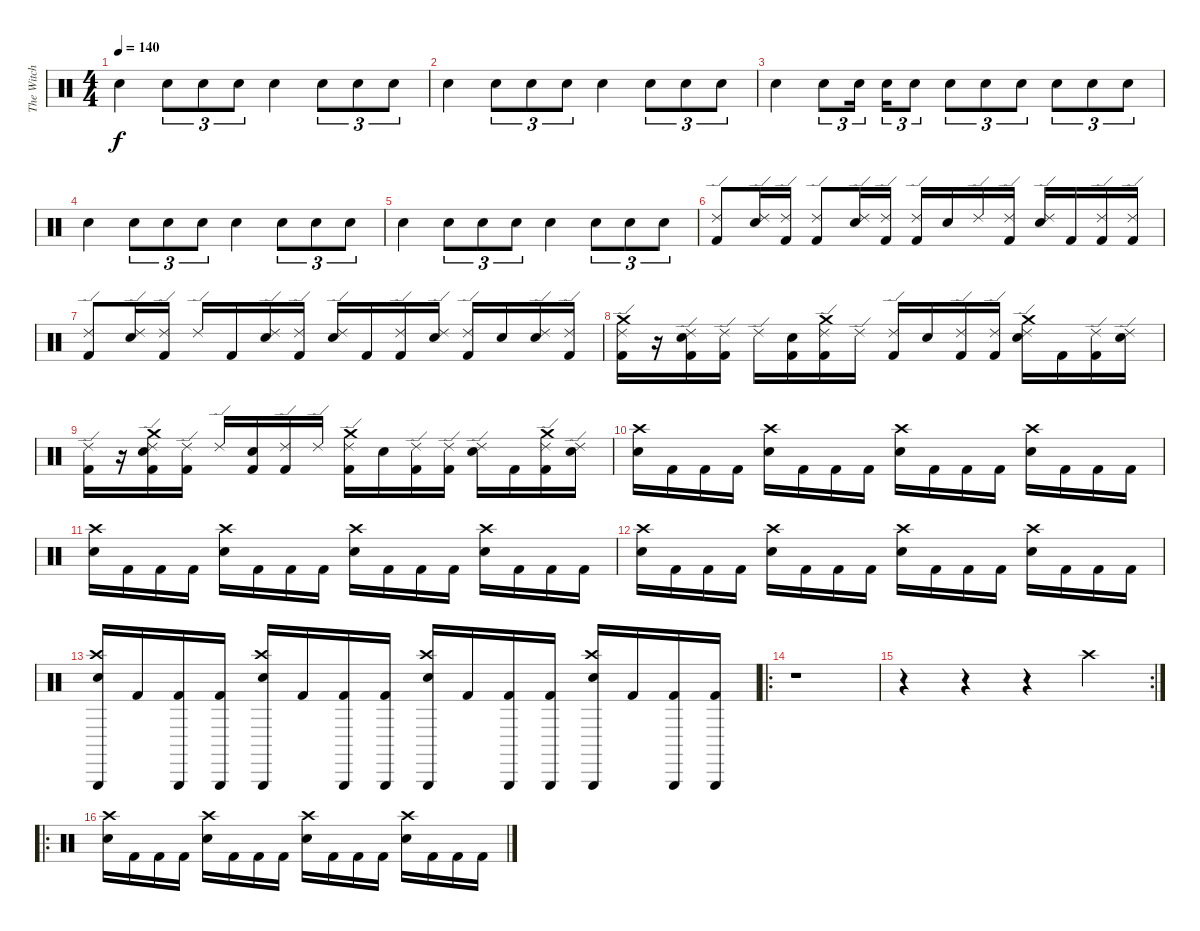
\track ("The Witch" "The Witch") {instrument percussion}
\staff {score}
\articulation defaults
\ts (4 4)
\tempo 140
\clef neutral
\ks c "Electric Snare (hit)".4{dy f} "Electric Snare (hit)".8{tu (3 2)} "Electric Snare (hit)".8{tu (3 2)} "Electric Snare (hit)".8{tu (3 2)} "Electric Snare (hit)".4 "Electric Snare (hit)".8{tu (3 2)} "Electric Snare (hit)".8{tu (3 2)} "Electric Snare (hit)".8{tu (3 2)}
|
"Electric Snare (hit)".4{volume 9} "Electric Snare (hit)".8{tu (3 2)} "Electric Snare (hit)".8{tu (3 2)} "Electric Snare (hit)".8{tu (3 2)} "Electric Snare (hit)".4 "Electric Snare (hit)".8{tu (3 2)} "Electric Snare (hit)".8{tu (3 2)} "Electric Snare (hit)".8{tu (3 2)} |
"Electric Snare (hit)".4 "Electric Snare (hit)".8{tu (3 2)} "Electric Snare (hit)".16{tu (3 2)} "Electric Snare (hit)".16{tu (3 2)} "Electric Snare (hit)".8{tu (3 2)} "Electric Snare (hit)".8{tu (3 2)} "Electric Snare (hit)".8{tu (3 2)} "Electric Snare (hit)".8{tu (3 2)} "Electric Snare (hit)".8{tu (3 2)} "Electric Snare (hit)".8{tu (3 2)} "Electric Snare (hit)".8{tu (3 2)} |
"Electric Snare (hit)".4 "Electric Snare (hit)".8{tu (3 2)} "Electric Snare (hit)".8{tu (3 2)} "Electric Snare (hit)".8{tu (3 2)} "Electric Snare (hit)".4 "Electric Snare (hit)".8{tu (3 2)} "Electric Snare (hit)".8{tu (3 2)} "Electric Snare (hit)".8{tu (3 2)} |
"Electric Snare (hit)".4 "Electric Snare (hit)".8{tu (3 2)} "Electric Snare (hit)".8{tu (3 2)} "Electric Snare (hit)".8{tu (3 2)} "Electric Snare (hit)".4 "Electric Snare (hit)".8{tu (3 2)} "Electric Snare (hit)".8{tu (3 2)} "Electric Snare (hit)".8{tu (3 2)} |
("Ride (edge) 2" "Kick (hit) 2").8{volume 13} ("Ride (edge) 2" "Electric Snare (hit)").16 ("Ride (edge) 2" "Kick (hit) 2").16 ("Ride (edge) 2" "Kick (hit) 2").8 ("Ride (edge) 2" "Electric Snare (hit)").16 ("Ride (edge) 2" "Kick (hit) 2").16 ("Ride (edge) 2" "Kick (hit) 2").16 "Electric Snare (hit)".16 "Ride (edge) 2".16 ("Ride (edge) 2" "Kick (hit) 2").16 ("Ride (edge) 2" "Electric Snare (hit)").16 "Kick (hit) 2".16 ("Ride (edge) 2" "Kick (hit) 2").16 ("Ride (edge) 2" "Kick (hit) 2").16 |
("Ride (edge) 2" "Kick (hit) 2").8 ("Ride (edge) 2" "Electric Snare (hit)").16 ("Ride (edge) 2" "Kick (hit) 2").16 "Ride (edge) 2".16 "Kick (hit) 2".16 ("Ride (edge) 2" "Electric Snare (hit)").16 ("Ride (edge) 2" "Kick (hit) 2").16 ("Ride (edge) 2" "Electric Snare (hit)").16 "Kick (hit) 2".16 ("Ride (edge) 2" "Kick (hit) 2").16 ("Ride (edge) 2" "Electric Snare (hit)").16 ("Ride (edge) 2" "Kick (hit) 2").16 "Electric Snare (hit)".16 ("Ride (edge) 2" "Electric Snare (hit)").16 ("Ride (edge) 2" "Kick (hit) 2").16 |
("Ride (edge) 2" "Crash medium (hit)" "Kick (hit) 2").16 r.16 ("Ride (edge) 2" "Electric Snare (hit)" "Kick (hit) 2").16 ("Ride (edge) 2" "Kick (hit) 2").16 "Ride (edge) 2".16 ("Electric Snare (hit)" "Kick (hit) 2").16 ("Ride (edge) 2" "Crash medium (hit)" "Kick (hit) 2").16 "Ride (edge) 2".16 ("Ride (edge) 2" "Kick (hit) 2").16 "Electric Snare (hit)".16 ("Ride (edge) 2" "Kick (hit) 2").16 ("Ride (edge) 2" "Kick (hit) 2").16 ("Ride (edge) 2" "Crash medium (hit)" "Electric Snare (hit)").16 "Kick (hit) 2".16 ("Ride (edge) 2" "Kick (hit) 2").16 ("Ride (edge) 2" "Electric Snare (hit)").16 |
("Ride (edge) 2" "Kick (hit) 2").16 r.16 ("Ride (edge) 2" "Crash medium (hit)" "Electric Snare (hit)" "Kick (hit) 2").16 ("Ride (edge) 2" "Kick (hit) 2").16 "Ride (edge) 2".16 ("Electric Snare (hit)" "Kick (hit) 2").16 ("Ride (edge) 2" "Kick (hit) 2").16 "Ride (edge) 2".16 ("Ride (edge) 2" "Crash medium (hit)" "Kick (hit) 2").16 "Electric Snare (hit)".16 ("Ride (edge) 2" "Kick (hit) 2").16 ("Ride (edge) 2" "Kick (hit) 2").16 ("Ride (edge) 2" "Electric Snare (hit)").16 "Kick (hit) 2".16 ("Ride (edge) 2" "Crash medium (hit)" "Kick (hit) 2").16 ("Ride (edge) 2" "Electric Snare (hit)").16 |
("Crash high (hit)" "Electric Snare (hit)").16 "Kick (hit) 2".16 "Kick (hit) 2".16 "Kick (hit) 2".16 ("Crash high (hit)" "Electric Snare (hit)").16 "Kick (hit) 2".16 "Kick (hit) 2".16 "Kick (hit) 2".16 ("Crash high (hit)" "Electric Snare (hit)").16 "Kick (hit) 2".16 "Kick (hit) 2".16 "Kick (hit) 2".16 ("Crash high (hit)" "Electric Snare (hit)").16 "Kick (hit) 2".16 "Kick (hit) 2".16 "Kick (hit) 2".16 |
("Crash high (hit)" "Electric Snare (hit)").16 "Kick (hit) 2".16 "Kick (hit) 2".16 "Kick (hit) 2".16 ("Crash high (hit)" "Electric Snare (hit)").16 "Kick (hit) 2".16 "Kick (hit) 2".16 "Kick (hit) 2".16 ("Crash high (hit)" "Electric Snare (hit)").16 "Kick (hit) 2".16 "Kick (hit) 2".16 "Kick (hit) 2".16 ("Crash high (hit)" "Electric Snare (hit)").16 "Kick (hit) 2".16 "Kick (hit) 2".16 "Kick (hit) 2".16 |
("Crash high (hit)" "Electric Snare (hit)").16 "Kick (hit) 2".16 "Kick (hit) 2".16 "Kick (hit) 2".16 ("Crash high (hit)" "Electric Snare (hit)").16 "Kick (hit) 2".16 "Kick (hit) 2".16 "Kick (hit) 2".16 ("Crash high (hit)" "Electric Snare (hit)").16 "Kick (hit) 2".16 "Kick (hit) 2".16 "Kick (hit) 2".16 ("Crash high (hit)" "Electric Snare (hit)").16 "Kick (hit) 2".16 "Kick (hit) 2".16 "Kick (hit) 2".16 |
("Crash high (hit)" "Triangle (hit)" "Electric Snare (hit)").16 "Kick (hit) 2".16 ("Triangle (hit)" "Kick (hit) 2").16 ("Triangle (hit)" "Kick (hit) 2").16 ("Crash high (hit)" "Triangle (hit)" "Electric Snare (hit)").16 "Kick (hit) 2".16 ("Triangle (hit)" "Kick (hit) 2").16 ("Triangle (hit)" "Kick (hit) 2").16 ("Crash high (hit)" "Triangle (hit)" "Electric Snare (hit)").16 "Kick (hit) 2".16 ("Triangle (hit)" "Kick (hit) 2").16 ("Triangle (hit)" "Kick (hit) 2").16 ("Crash high (hit)" "Triangle (hit)" "Electric Snare (hit)").16 "Kick (hit) 2".16 ("Triangle (hit)" "Kick (hit) 2").16 ("Triangle (hit)" "Kick (hit) 2").16 |
\ro
r.1 |
\rc 2
r.4 r.4 r.4 "Crash high (hit)".4 |
\ro
("Crash high (hit)" "Electric Snare (hit)").16{volume 13} "Kick (hit) 2".16 "Kick (hit) 2".16 "Kick (hit) 2".16 ("Crash high (hit)" "Electric Snare (hit)").16 "Kick (hit) 2".16 "Kick (hit) 2".16 "Kick (hit) 2".16 ("Crash high (hit)" "Electric Snare (hit)").16 "Kick (hit) 2".16 "Kick (hit) 2".16 "Kick (hit) 2".16 ("Crash high (hit)" "Electric Snare (hit)").16 "Kick (hit) 2".16 "Kick (hit) 2".16 "Kick (hit) 2".16
